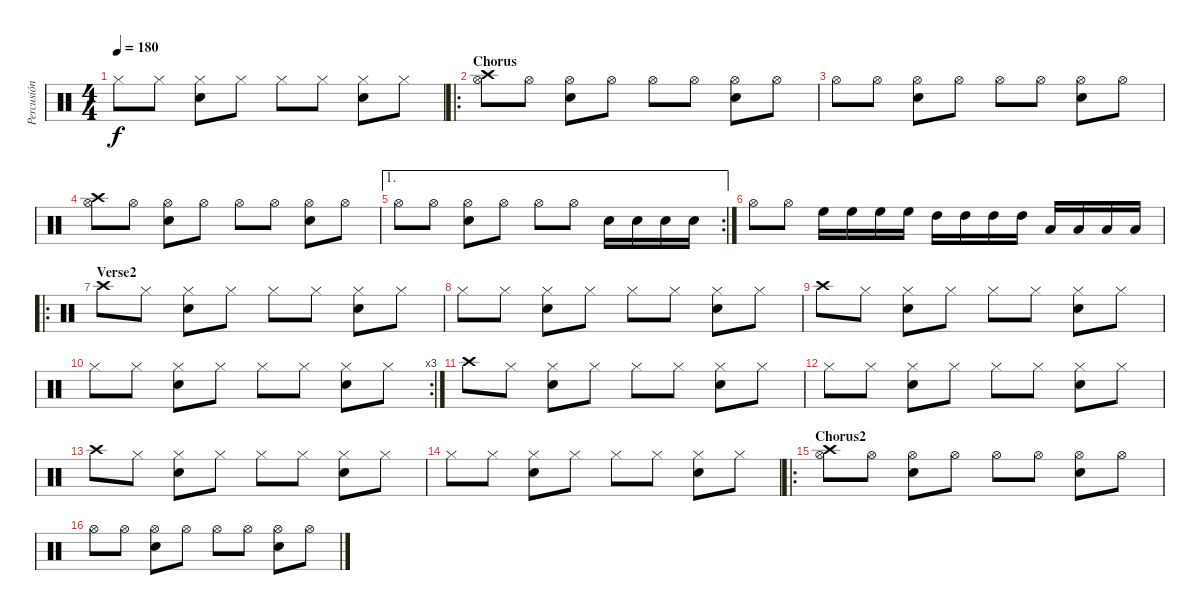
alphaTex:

\track ("Percusión" "Percusión") {instrument percussion}
\staff {score}
\articulation defaults
\ts (4 4)
\tempo 180
\clef neutral
\ks c "Hi-Hat (closed)".8{dy f} "Hi-Hat (closed)".8
("Hi-Hat (closed)" "Snare (hit) 2").8 "Hi-Hat (closed)".8 "Hi-Hat (closed)".8 "Hi-Hat (closed)".8 ("Hi-Hat (closed)" "Snare (hit) 2").8 "Hi-Hat (closed)".8 |
\ro
\section ("" "Chorus")
("Hi-Hat (open)" "Crash high (hit)").8 "Hi-Hat (open)".8 ("Hi-Hat (open)" "Snare (hit) 2").8 "Hi-Hat (open)".8 "Hi-Hat (open)".8 "Hi-Hat (open)".8 ("Hi-Hat (open)" "Snare (hit) 2").8 "Hi-Hat (open)".8 |
"Hi-Hat (open)".8 "Hi-Hat (open)".8 ("Hi-Hat (open)" "Snare (hit) 2").8 "Hi-Hat (open)".8 "Hi-Hat (open)".8 "Hi-Hat (open)".8 ("Hi-Hat (open)" "Snare (hit) 2").8 "Hi-Hat (open)".8 |
("Hi-Hat (open)" "Crash high (hit)").8 "Hi-Hat (open)".8 ("Hi-Hat (open)" "Snare (hit) 2").8 "Hi-Hat (open)".8 "Hi-Hat (open)".8 "Hi-Hat (open)".8 ("Hi-Hat (open)" "Snare (hit) 2").8 "Hi-Hat (open)".8 |
\ae 1
\rc 2 "Hi-Hat (open)".8 "Hi-Hat (open)".8
("Hi-Hat (open)" "Snare (hit) 2").8 "Hi-Hat (open)".8 "Hi-Hat (open)".8 "Hi-Hat (open)".8 "Snare (hit) 2".16 "Snare (hit) 2".16 "Snare (hit) 2".16 "Snare (hit) 2".16 |
"Hi-Hat (open)".8 "Hi-Hat (open)".8 "High Floor Tom (hit)".16 "High Floor Tom (hit)".16 "High Floor Tom (hit)".16 "High Floor Tom (hit)".16 "High Tom (hit)".16 "High Tom (hit)".16 "High Tom (hit)".16 "High Tom (hit)".16 "Low Tom (hit)".16 "Low Tom (hit)".16 "Low Tom (hit)".16 "Low Tom (hit)".16 |
\ro
\section ("" "Verse2")
"Crash high (hit)".8 "Hi-Hat (closed)".8 ("Hi-Hat (closed)" "Snare (hit) 2").8 "Hi-Hat (closed)".8 "Hi-Hat (closed)".8 "Hi-Hat (closed)".8 ("Hi-Hat (closed)" "Snare (hit) 2").8 "Hi-Hat (closed)".8 |
"Hi-Hat (closed)".8 "Hi-Hat (closed)".8 ("Hi-Hat (closed)" "Snare (hit) 2").8 "Hi-Hat (closed)".8 "Hi-Hat (closed)".8 "Hi-Hat (closed)".8 ("Hi-Hat (closed)" "Snare (hit) 2").8 "Hi-Hat (closed)".8 |
"Crash high (hit)".8 "Hi-Hat (closed)".8 ("Hi-Hat (closed)" "Snare (hit) 2").8 "Hi-Hat (closed)".8 "Hi-Hat (closed)".8 "Hi-Hat (closed)".8 ("Hi-Hat (closed)" "Snare (hit) 2").8 "Hi-Hat (closed)".8 |
\rc 3 "Hi-Hat (closed)".8 "Hi-Hat (closed)".8
("Hi-Hat (closed)" "Snare (hit) 2").8 "Hi-Hat (closed)".8 "Hi-Hat (closed)".8 "Hi-Hat (closed)".8 ("Hi-Hat (closed)" "Snare (hit) 2").8 "Hi-Hat (closed)".8 |
"Crash high (hit)".8 "Hi-Hat (closed)".8 ("Hi-Hat (closed)" "Snare (hit) 2").8 "Hi-Hat (closed)".8 "Hi-Hat (closed)".8 "Hi-Hat (closed)".8 ("Hi-Hat (closed)" "Snare (hit) 2").8 "Hi-Hat (closed)".8 |
"Hi-Hat (closed)".8 "Hi-Hat (closed)".8 ("Hi-Hat (closed)" "Snare (hit) 2").8 "Hi-Hat (closed)".8 "Hi-Hat (closed)".8 "Hi-Hat (closed)".8 ("Hi-Hat (closed)" "Snare (hit) 2").8 "Hi-Hat (closed)".8 |
"Crash high (hit)".8 "Hi-Hat (closed)".8 ("Hi-Hat (closed)" "Snare (hit) 2").8 "Hi-Hat (closed)".8 "Hi-Hat (closed)".8 "Hi-Hat (closed)".8 ("Hi-Hat (closed)" "Snare (hit) 2").8 "Hi-Hat (closed)".8 |
"Hi-Hat (closed)".8 "Hi-Hat (closed)".8 ("Hi-Hat (closed)" "Snare (hit) 2").8 "Hi-Hat (closed)".8 "Hi-Hat (closed)".8 "Hi-Hat (closed)".8 ("Hi-Hat (closed)" "Snare (hit) 2").8 "Hi-Hat (closed)".8 |
\ro
\section ("" "Chorus2")
("Hi-Hat (open)" "Crash high (hit)").8 "Hi-Hat (open)".8 ("Hi-Hat (open)" "Snare (hit) 2").8 "Hi-Hat (open)".8 "Hi-Hat (open)".8 "Hi-Hat (open)".8 ("Hi-Hat (open)" "Snare (hit) 2").8 "Hi-Hat (open)".8 |
"Hi-Hat (open)".8 "Hi-Hat (open)".8 ("Hi-Hat (open)" "Snare (hit) 2").8 "Hi-Hat (open)".8 "Hi-Hat (open)".8 "Hi-Hat (open)".8 ("Hi-Hat (open)" "Snare (hit) 2").8 "Hi-Hat (open)".8
